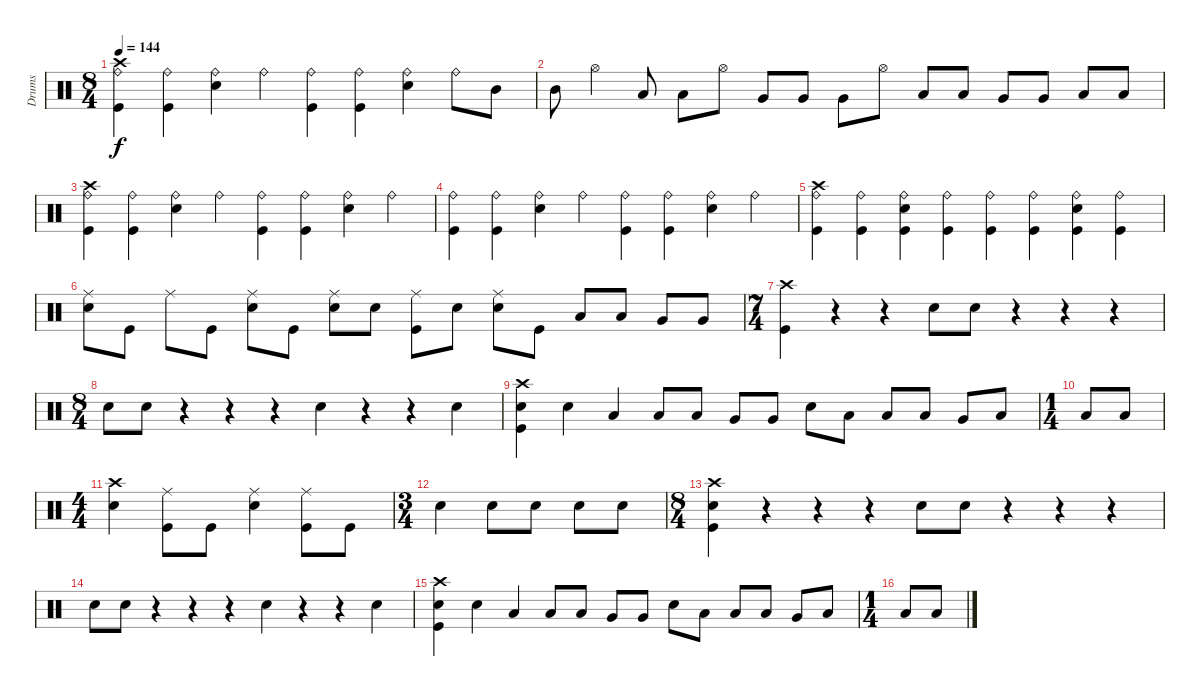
\track ("Drums" "Drums") {instrument percussion}
\staff {score}
\articulation defaults
\ts (8 4)
\tempo 144
\clef neutral
\ks c
("Crash high (hit)" "Ride (bell)" "Kick (hit)").4{dy f} ("Ride (bell)" "Kick (hit)").4 ("Ride (bell)" "Snare (hit) 2").4 "Ride (bell)".4 ("Ride (bell)" "Kick (hit)").4 ("Ride (bell)" "Kick (hit)").4 ("Ride (bell)" "Snare (hit) 2").4 "Ride (bell)".8 "Mid Tom (hit)".8 |
"Mid Tom (hit)".8 "Hi-Hat (open)".4 "Low Tom (hit)".8 "Low Tom (hit)".8 "Hi-Hat (open)".8 "Very Low Tom (hit)".8 "Very Low Tom (hit)".8 "Very Low Tom (hit)".8 "Hi-Hat (open)".8 "Low Tom (hit)".8 "Low Tom (hit)".8 "Very Low Tom (hit)".8 "Very Low Tom (hit)".8 "Low Floor Tom (hit)".8 "Low Floor Tom (hit)".8 |
("Crash high (hit)" "Ride (bell)" "Kick (hit)").4 ("Ride (bell)" "Kick (hit)").4 ("Ride (bell)" "Snare (hit) 2").4 "Ride (bell)".4 ("Ride (bell)" "Kick (hit)").4 ("Ride (bell)" "Kick (hit)").4 ("Ride (bell)" "Snare (hit) 2").4 "Ride (bell)".4 |
("Ride (bell)" "Kick (hit)").4 ("Ride (bell)" "Kick (hit)").4 ("Ride (bell)" "Snare (hit) 2").4 "Ride (bell)".4 ("Ride (bell)" "Kick (hit)").4 ("Ride (bell)" "Kick (hit)").4 ("Ride (bell)" "Snare (hit) 2").4 "Ride (bell)".4 |
("Crash high (hit)" "Ride (bell)" "Kick (hit)").4 ("Ride (bell)" "Kick (hit)").4 ("Ride (bell)" "Snare (hit) 2" "Kick (hit)").4 ("Ride (bell)" "Kick (hit)").4 ("Ride (bell)" "Kick (hit)").4 ("Ride (bell)" "Kick (hit)").4 ("Ride (bell)" "Snare (hit) 2" "Kick (hit)").4 ("Ride (bell)" "Kick (hit)").4 |
("Ride (middle)" "Snare (hit) 2").8 "Kick (hit)".8 "Ride (middle)".8 "Kick (hit)".8 ("Ride (middle)" "Snare (hit) 2").8 "Kick (hit)".8 ("Ride (middle)" "Snare (hit) 2").8 "Snare (hit) 2".8 ("Ride (middle)" "Kick (hit)").8 "Snare (hit) 2".8 ("Ride (middle)" "Snare (hit) 2").8 "Kick (hit)".8 "Low Tom (hit)".8 "Low Tom (hit)".8 "Very Low Tom (hit)".8 "Very Low Tom (hit)".8 |
\ts (7 4)
("Crash high (hit)" "Kick (hit)").4 r.4 r.4 "Snare (hit) 2".8 "Snare (hit) 2".8 r.4 r.4 r.4 |
\ts (8 4)
"Snare (hit) 2".8 "Snare (hit) 2".8 r.4 r.4 r.4 "Snare (hit) 2".4 r.4 r.4 "Snare (hit) 2".4 |
("Crash high (hit)" "Snare (hit) 2" "Kick (hit)").4 "Snare (hit) 2".4 "Low Tom (hit)".4 "Low Tom (hit)".8 "Low Tom (hit)".8 "Very Low Tom (hit)".8 "Very Low Tom (hit)".8 "Snare (hit) 2".8 "Low Floor Tom (hit)".8 "Low Tom (hit)".8 "Low Floor Tom (hit)".8 "Very Low Tom (hit)".8 "Low Floor Tom (hit)".8 |
\ts (1 4)
"Low Floor Tom (hit)".8 "Low Floor Tom (hit)".8 |
\ts (4 4)
("Crash high (hit)" "Snare (hit) 2").4 ("Ride (middle)" "Kick (hit)").8 "Kick (hit)".8 ("Ride (middle)" "Snare (hit) 2").4 ("Ride (middle)" "Kick (hit)").8 "Kick (hit)".8 |
\ts (3 4)
"Snare (hit) 2".4 "Snare (hit) 2".8 "Snare (hit) 2".8 "Snare (hit) 2".8 "Snare (hit) 2".8 |
\ts (8 4)
("Crash high (hit)" "Snare (hit) 2" "Kick (hit)").4 r.4 r.4 r.4 "Snare (hit) 2".8 "Snare (hit) 2".8 r.4 r.4 r.4 |
"Snare (hit) 2".8 "Snare (hit) 2".8 r.4 r.4 r.4 "Snare (hit) 2".4 r.4 r.4 "Snare (hit) 2".4 |
("Crash high (hit)" "Snare (hit) 2" "Kick (hit)").4 "Snare (hit) 2".4 "Low Tom (hit)".4 "Low Tom (hit)".8 "Low Tom (hit)".8 "Very Low Tom (hit)".8 "Very Low Tom (hit)".8 "Snare (hit) 2".8 "Low Floor Tom (hit)".8 "Low Tom (hit)".8 "Low Floor Tom (hit)".8 "Very Low Tom (hit)".8 "Low Floor Tom (hit)".8 |
\ts (1 4)
"Low Floor Tom (hit)".8 "Low Floor Tom (hit)".8
